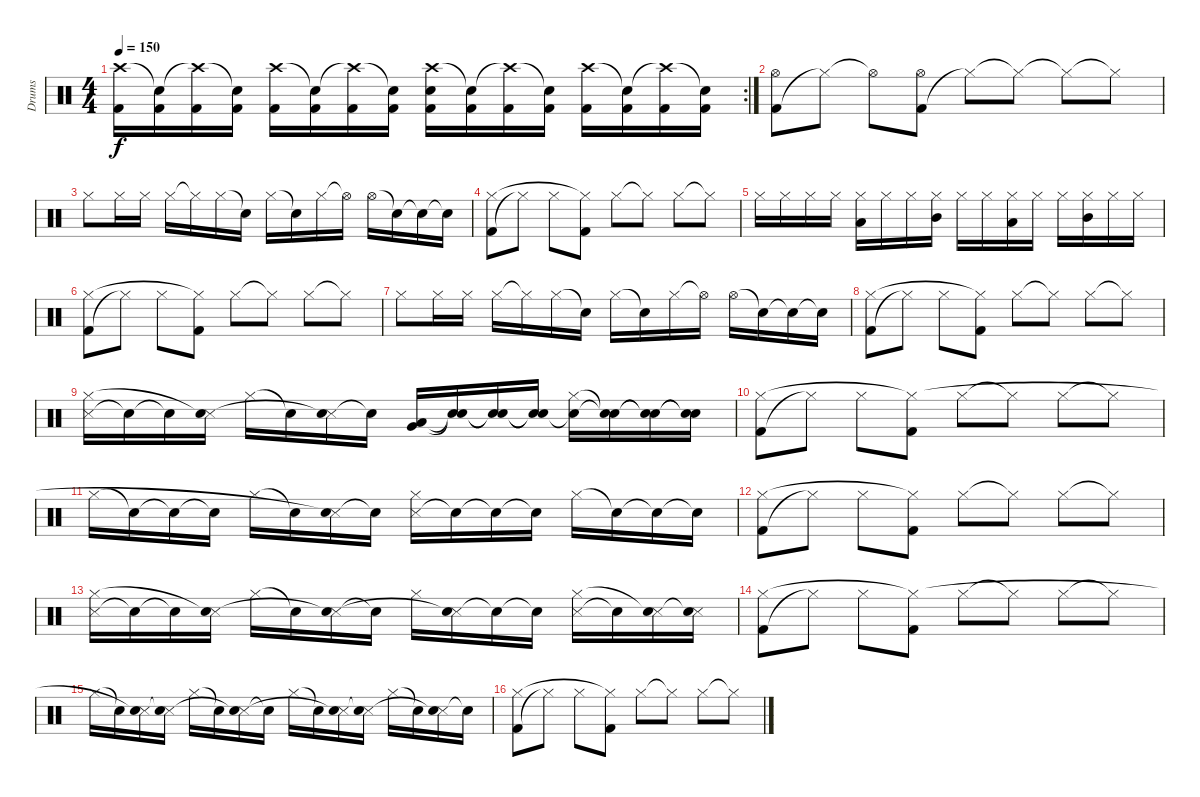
\track ("Drums" "Drums") {instrument percussion}
\staff {score}
\articulation defaults
\rc 2
\ts (4 4)
\tempo 150
\clef neutral
\ks c
("Kick (hit) 2" "Crash high (hit)").16{dy f} ("Kick (hit) 2" "Snare (hit)"{t}).16 ("Kick (hit) 2" "Crash high (hit)"{t}).16 ("Kick (hit) 2" "Snare (hit)"{t}).16 ("Kick (hit) 2" "Crash high (hit)").16 ("Kick (hit) 2" "Snare (hit)"{t}).16 ("Kick (hit) 2" "Crash high (hit)"{t}).16 ("Kick (hit) 2" "Snare (hit)"{t}).16 ("Kick (hit) 2" "Crash high (hit)" "Electric Snare (hit)").16 ("Kick (hit) 2" "Snare (hit)"{t}).16 ("Kick (hit) 2" "Crash high (hit)"{t}).16 ("Kick (hit) 2" "Snare (hit)"{t}).16 ("Kick (hit) 2" "Crash high (hit)").16 ("Kick (hit) 2" "Snare (hit)"{t}).16 ("Kick (hit) 2" "Crash high (hit)"{t}).16 ("Kick (hit) 2" "Snare (hit)"{t}).16 |
("Kick (hit) 2" "Hi-Hat (open)").8 "Hi-Hat (closed)"{t}.8 "Hi-Hat (open)"{t}.8 ("Kick (hit) 2" "Hi-Hat (open)").8 "Hi-Hat (closed)"{t}.8 "Hi-Hat (closed)"{t}.8 "Hi-Hat (closed)"{t}.8 "Hi-Hat (closed)"{t}.8 |
"Hi-Hat (closed)".8 "Hi-Hat (closed)".16 "Hi-Hat (closed)".16 "Hi-Hat (closed)".16 "Hi-Hat (closed)"{t}.16 "Hi-Hat (closed)".16 "Snare (hit)"{t}.16 "Hi-Hat (closed)".16 "Snare (hit)"{t}.16 "Hi-Hat (closed)".16 "Hi-Hat (open)"{t}.16 "Hi-Hat (open)".16 "Snare (hit)"{t}.16 "Snare (hit)"{t}.16 "Snare (hit)"{t}.16 |
("Kick (hit) 2" "Hi-Hat (closed)").8 "Hi-Hat (closed)"{t}.8 "Hi-Hat (closed)".8 ("Kick (hit) 2" "Hi-Hat (closed)"{t}).8 "Hi-Hat (closed)".8 "Hi-Hat (closed)"{t}.8 "Hi-Hat (closed)".8 "Hi-Hat (closed)"{t}.8 |
"Hi-Hat (closed)".16 "Hi-Hat (closed)".16 "Hi-Hat (closed)".16 "Hi-Hat (closed)".16 ("Low Tom (hit)" "Hi-Hat (closed)").16 "Hi-Hat (closed)".16 "Hi-Hat (closed)".16 ("Mid Tom (hit)" "Hi-Hat (closed)").16 "Hi-Hat (closed)".16 "Hi-Hat (closed)".16 ("Low Tom (hit)" "Hi-Hat (closed)").16 "Hi-Hat (closed)".16 "Hi-Hat (closed)".16 ("Mid Tom (hit)" "Hi-Hat (closed)").16 "Hi-Hat (closed)".16 "Hi-Hat (closed)".16 |
("Kick (hit) 2" "Hi-Hat (closed)").8 "Hi-Hat (closed)"{t}.8 "Hi-Hat (closed)".8 ("Kick (hit) 2" "Hi-Hat (closed)"{t}).8 "Hi-Hat (closed)".8 "Hi-Hat (closed)"{t}.8 "Hi-Hat (closed)".8 "Hi-Hat (closed)"{t}.8 |
"Hi-Hat (closed)".8 "Hi-Hat (closed)".16 "Hi-Hat (closed)".16 "Hi-Hat (closed)".16 "Hi-Hat (closed)"{t}.16 "Hi-Hat (closed)".16 "Snare (hit)"{t}.16 "Hi-Hat (closed)".16 "Snare (hit)"{t}.16 "Hi-Hat (closed)".16 "Hi-Hat (open)"{t}.16 "Hi-Hat (open)".16 "Snare (hit)"{t}.16 "Snare (hit)"{t}.16 "Snare (hit)"{t}.16 |
("Kick (hit) 2" "Hi-Hat (closed)").8 "Hi-Hat (closed)"{t}.8 "Hi-Hat (closed)".8 ("Kick (hit) 2" "Hi-Hat (closed)"{t}).8 "Hi-Hat (closed)".8 "Hi-Hat (closed)"{t}.8 "Hi-Hat (closed)".8 "Hi-Hat (closed)"{t}.8 |
("Snare (side stick) 3" "Hi-Hat (closed)").16 "Snare (hit)"{t}.16 "Snare (hit)"{t}.16 ("Snare (side stick) 3" "Snare (hit)"{t}).16 "Hi-Hat (closed)".16 "Snare (hit)"{t}.16 ("Snare (side stick) 3" "Snare (hit)"{t}).16 "Snare (hit)"{t}.16 ("Low Floor Tom (hit)" "Very Low Tom (hit)").16 ("Snare (hit)"{t} "Snare (hit)"{t}).16 ("Snare (hit)"{t} "Snare (hit)"{t}).16 ("Snare (hit)"{t} "Snare (hit)"{t}).16 ("Snare (hit)"{t} "Hi-Hat (closed)").16 ("Snare (hit)"{t} "Snare (hit)"{t}).16 ("Snare (hit)"{t} "Snare (hit)"{t}).16 ("Snare (hit)"{t} "Snare (hit)"{t}).16 |
("Kick (hit) 2" "Hi-Hat (closed)").8 "Hi-Hat (closed)"{t}.8 "Hi-Hat (closed)".8 ("Kick (hit) 2" "Hi-Hat (closed)"{t}).8 "Hi-Hat (closed)".8 "Hi-Hat (closed)"{t}.8 "Hi-Hat (closed)".8 "Hi-Hat (closed)"{t}.8 |
"Hi-Hat (closed)".16 "Snare (hit)"{t}.16 "Snare (hit)"{t}.16 "Snare (hit)"{t}.16 "Hi-Hat (closed)".16 "Snare (hit)"{t}.16 ("Snare (side stick) 3" "Snare (hit)"{t}).16 "Snare (hit)"{t}.16 ("Snare (side stick) 3" "Hi-Hat (closed)").16 "Snare (hit)"{t}.16 "Snare (hit)"{t}.16 "Snare (hit)"{t}.16 "Hi-Hat (closed)".16 "Snare (hit)"{t}.16 "Snare (hit)"{t}.16 "Snare (hit)"{t}.16 |
("Kick (hit) 2" "Hi-Hat (closed)").8 "Hi-Hat (closed)"{t}.8 "Hi-Hat (closed)".8 ("Kick (hit) 2" "Hi-Hat (closed)"{t}).8 "Hi-Hat (closed)".8 "Hi-Hat (closed)"{t}.8 "Hi-Hat (closed)".8 "Hi-Hat (closed)"{t}.8 |
("Snare (side stick) 3" "Hi-Hat (closed)").16 "Snare (hit)"{t}.16 "Snare (hit)"{t}.16 ("Snare (side stick) 3" "Snare (hit)"{t}).16 "Hi-Hat (closed)".16 "Snare (hit)"{t}.16 ("Snare (side stick) 3" "Snare (hit)"{t}).16 "Snare (hit)"{t}.16 "Hi-Hat (closed)".16 ("Snare (side stick) 3" "Snare (hit)"{t}).16 "Snare (hit)"{t}.16 "Snare (hit)"{t}.16 ("Snare (side stick) 3" "Hi-Hat (closed)").16 "Snare (hit)"{t}.16 ("Snare (side stick) 3" "Snare (hit)"{t}).16 ("Snare (side stick) 3" "Snare (hit)"{t}).16 |
("Kick (hit) 2" "Hi-Hat (closed)").8 "Hi-Hat (closed)"{t}.8 "Hi-Hat (closed)".8 ("Kick (hit) 2" "Hi-Hat (closed)"{t}).8 "Hi-Hat (closed)".8 "Hi-Hat (closed)"{t}.8 "Hi-Hat (closed)".8 "Hi-Hat (closed)"{t}.8 |
"Hi-Hat (closed)".16 "Snare (hit)"{t}.16 ("Snare (side stick) 3" "Snare (hit)"{t}).16 ("Snare (side stick) 3" "Snare (hit)"{t}).16 "Hi-Hat (closed)".16 "Snare (hit)"{t}.16 ("Snare (side stick) 3" "Snare (hit)"{t}).16 "Snare (hit)"{t}.16 "Hi-Hat (closed)".16 "Snare (hit)"{t}.16 ("Snare (side stick) 3" "Snare (hit)"{t}).16 ("Snare (side stick) 3" "Snare (hit)"{t}).16 "Hi-Hat (closed)".16 "Snare (hit)"{t}.16 ("Snare (side stick) 3" "Snare (hit)"{t}).16 "Snare (hit)"{t}.16 |
("Kick (hit) 2" "Hi-Hat (closed)").8 "Hi-Hat (closed)"{t}.8 "Hi-Hat (closed)".8 ("Kick (hit) 2" "Hi-Hat (closed)"{t}).8 "Hi-Hat (closed)".8 "Hi-Hat (closed)"{t}.8 "Hi-Hat (closed)".8 "Hi-Hat (closed)"{t}.8
